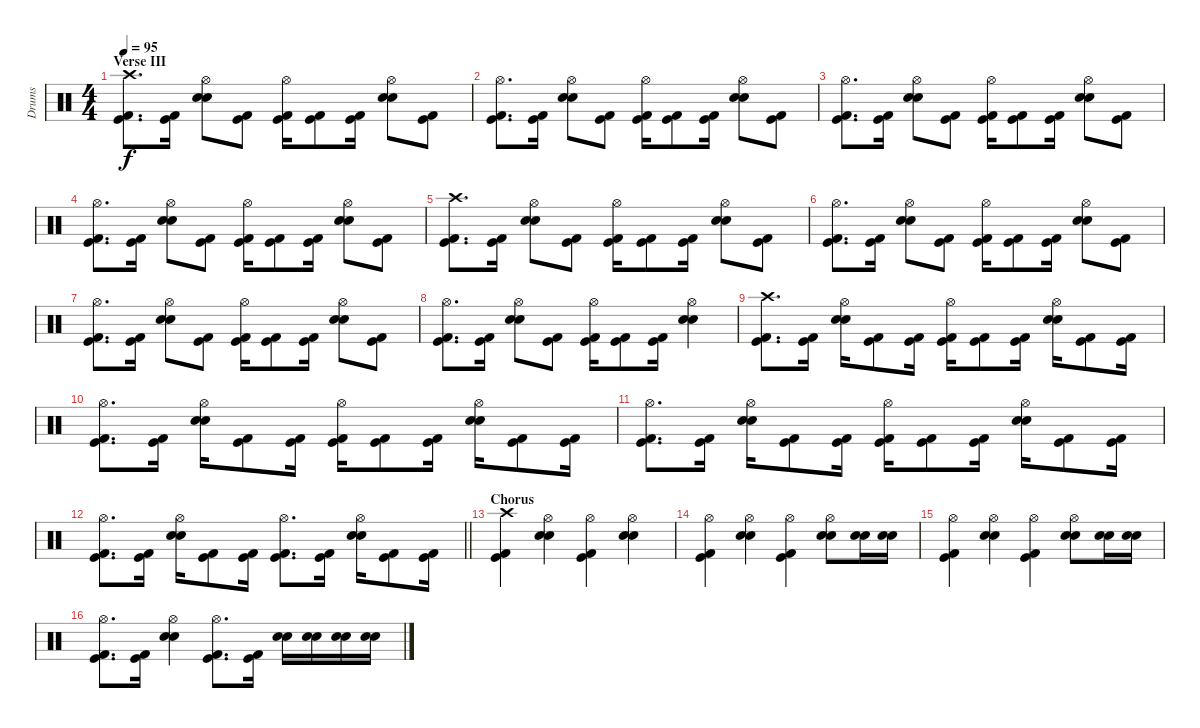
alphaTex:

\track ("Drums" "Drums") {instrument percussion}
\staff {score}
\articulation defaults
\ts (4 4)
\section ("" "Verse III")
\tempo 95
\clef neutral
\ks c
("Crash high (hit)" "Kick (hit)" "Kick (hit) 2").8{d dy f} ("Kick (hit)" "Kick (hit) 2").16 ("Hi-Hat (open)" "Snare (hit) 2" "Electric Snare (hit)").8 ("Kick (hit)" "Kick (hit) 2").8 ("Hi-Hat (open)" "Kick (hit)" "Kick (hit) 2").16 ("Kick (hit)" "Kick (hit) 2").8 ("Kick (hit)" "Kick (hit) 2").16 ("Hi-Hat (open)" "Snare (hit) 2" "Electric Snare (hit)").8 ("Kick (hit)" "Kick (hit) 2").8 |
("Hi-Hat (open)" "Kick (hit)" "Kick (hit) 2").8{d} ("Kick (hit)" "Kick (hit) 2").16 ("Hi-Hat (open)" "Snare (hit) 2" "Electric Snare (hit)").8 ("Kick (hit)" "Kick (hit) 2").8 ("Hi-Hat (open)" "Kick (hit)" "Kick (hit) 2").16 ("Kick (hit)" "Kick (hit) 2").8 ("Kick (hit)" "Kick (hit) 2").16 ("Hi-Hat (open)" "Snare (hit) 2" "Electric Snare (hit)").8 ("Kick (hit)" "Kick (hit) 2").8 |
("Hi-Hat (open)" "Kick (hit)" "Kick (hit) 2").8{d} ("Kick (hit)" "Kick (hit) 2").16 ("Hi-Hat (open)" "Snare (hit) 2" "Electric Snare (hit)").8 ("Kick (hit)" "Kick (hit) 2").8 ("Hi-Hat (open)" "Kick (hit)" "Kick (hit) 2").16 ("Kick (hit)" "Kick (hit) 2").8 ("Kick (hit)" "Kick (hit) 2").16 ("Hi-Hat (open)" "Snare (hit) 2" "Electric Snare (hit)").8 ("Kick (hit)" "Kick (hit) 2").8 |
("Hi-Hat (open)" "Kick (hit)" "Kick (hit) 2").8{d} ("Kick (hit)" "Kick (hit) 2").16 ("Hi-Hat (open)" "Snare (hit) 2" "Electric Snare (hit)").8 ("Kick (hit)" "Kick (hit) 2").8 ("Hi-Hat (open)" "Kick (hit)" "Kick (hit) 2").16 ("Kick (hit)" "Kick (hit) 2").8 ("Kick (hit)" "Kick (hit) 2").16 ("Hi-Hat (open)" "Snare (hit) 2" "Electric Snare (hit)").8 ("Kick (hit)" "Kick (hit) 2").8 |
("Crash high (hit)" "Kick (hit)" "Kick (hit) 2").8{d} ("Kick (hit)" "Kick (hit) 2").16 ("Hi-Hat (open)" "Snare (hit) 2" "Electric Snare (hit)").8 ("Kick (hit)" "Kick (hit) 2").8 ("Hi-Hat (open)" "Kick (hit)" "Kick (hit) 2").16 ("Kick (hit)" "Kick (hit) 2").8 ("Kick (hit)" "Kick (hit) 2").16 ("Hi-Hat (open)" "Snare (hit) 2" "Electric Snare (hit)").8 ("Kick (hit)" "Kick (hit) 2").8 |
("Hi-Hat (open)" "Kick (hit)" "Kick (hit) 2").8{d} ("Kick (hit)" "Kick (hit) 2").16 ("Hi-Hat (open)" "Snare (hit) 2" "Electric Snare (hit)").8 ("Kick (hit)" "Kick (hit) 2").8 ("Hi-Hat (open)" "Kick (hit)" "Kick (hit) 2").16 ("Kick (hit)" "Kick (hit) 2").8 ("Kick (hit)" "Kick (hit) 2").16 ("Hi-Hat (open)" "Snare (hit) 2" "Electric Snare (hit)").8 ("Kick (hit)" "Kick (hit) 2").8 |
("Hi-Hat (open)" "Kick (hit)" "Kick (hit) 2").8{d} ("Kick (hit)" "Kick (hit) 2").16 ("Hi-Hat (open)" "Snare (hit) 2" "Electric Snare (hit)").8 ("Kick (hit)" "Kick (hit) 2").8 ("Hi-Hat (open)" "Kick (hit)" "Kick (hit) 2").16 ("Kick (hit)" "Kick (hit) 2").8 ("Kick (hit)" "Kick (hit) 2").16 ("Hi-Hat (open)" "Snare (hit) 2" "Electric Snare (hit)").8 ("Kick (hit)" "Kick (hit) 2").8 |
("Hi-Hat (open)" "Kick (hit)" "Kick (hit) 2").8{d} ("Kick (hit)" "Kick (hit) 2").16 ("Hi-Hat (open)" "Snare (hit) 2" "Electric Snare (hit)").8 ("Kick (hit)" "Kick (hit) 2").8 ("Hi-Hat (open)" "Kick (hit)" "Kick (hit) 2").16 ("Kick (hit)" "Kick (hit) 2").8 ("Kick (hit)" "Kick (hit) 2").16 ("Hi-Hat (open)" "Snare (hit) 2" "Electric Snare (hit)").4 |
("Crash high (hit)" "Kick (hit)" "Kick (hit) 2").8{d} ("Kick (hit)" "Kick (hit) 2").16 ("Hi-Hat (open)" "Snare (hit) 2" "Electric Snare (hit)").16 ("Kick (hit)" "Kick (hit) 2").8 ("Kick (hit)" "Kick (hit) 2").16 ("Hi-Hat (open)" "Kick (hit)" "Kick (hit) 2").16 ("Kick (hit)" "Kick (hit) 2").8 ("Kick (hit)" "Kick (hit) 2").16 ("Hi-Hat (open)" "Snare (hit) 2" "Electric Snare (hit)").16 ("Kick (hit)" "Kick (hit) 2").8 ("Kick (hit)" "Kick (hit) 2").16 |
("Hi-Hat (open)" "Kick (hit)" "Kick (hit) 2").8{d} ("Kick (hit)" "Kick (hit) 2").16 ("Hi-Hat (open)" "Snare (hit) 2" "Electric Snare (hit)").16 ("Kick (hit)" "Kick (hit) 2").8 ("Kick (hit)" "Kick (hit) 2").16 ("Hi-Hat (open)" "Kick (hit)" "Kick (hit) 2").16 ("Kick (hit)" "Kick (hit) 2").8 ("Kick (hit)" "Kick (hit) 2").16 ("Hi-Hat (open)" "Snare (hit) 2" "Electric Snare (hit)").16 ("Kick (hit)" "Kick (hit) 2").8 ("Kick (hit)" "Kick (hit) 2").16 |
("Hi-Hat (open)" "Kick (hit)" "Kick (hit) 2").8{d} ("Kick (hit)" "Kick (hit) 2").16 ("Hi-Hat (open)" "Snare (hit) 2" "Electric Snare (hit)").16 ("Kick (hit)" "Kick (hit) 2").8 ("Kick (hit)" "Kick (hit) 2").16 ("Hi-Hat (open)" "Kick (hit)" "Kick (hit) 2").16 ("Kick (hit)" "Kick (hit) 2").8 ("Kick (hit)" "Kick (hit) 2").16 ("Hi-Hat (open)" "Snare (hit) 2" "Electric Snare (hit)").16 ("Kick (hit)" "Kick (hit) 2").8 ("Kick (hit)" "Kick (hit) 2").16 |
\barLineRight lightlight
("Hi-Hat (open)" "Kick (hit)" "Kick (hit) 2").8{d} ("Kick (hit)" "Kick (hit) 2").16 ("Hi-Hat (open)" "Snare (hit) 2" "Electric Snare (hit)").16 ("Kick (hit)" "Kick (hit) 2").8 ("Kick (hit)" "Kick (hit) 2").16 ("Hi-Hat (open)" "Kick (hit)" "Kick (hit) 2").8{d} ("Kick (hit)" "Kick (hit) 2").16 ("Hi-Hat (open)" "Snare (hit) 2" "Electric Snare (hit)").16 ("Kick (hit)" "Kick (hit) 2").8 ("Kick (hit)" "Kick (hit) 2").16 |
\section ("" "Chorus")
("Crash high (hit)" "Kick (hit)" "Kick (hit) 2").4 ("Hi-Hat (open)" "Snare (hit) 2" "Electric Snare (hit)").4 ("Hi-Hat (open)" "Kick (hit)" "Kick (hit) 2").4 ("Hi-Hat (open)" "Snare (hit) 2" "Electric Snare (hit)").4 |
("Hi-Hat (open)" "Kick (hit)" "Kick (hit) 2").4 ("Hi-Hat (open)" "Snare (hit) 2" "Electric Snare (hit)").4 ("Hi-Hat (open)" "Kick (hit)" "Kick (hit) 2").4 ("Hi-Hat (open)" "Snare (hit) 2" "Electric Snare (hit)").8 ("Snare (hit) 2" "Electric Snare (hit)").16 ("Snare (hit) 2" "Electric Snare (hit)").16 |
("Hi-Hat (open)" "Kick (hit)" "Kick (hit) 2").4 ("Hi-Hat (open)" "Snare (hit) 2" "Electric Snare (hit)").4 ("Hi-Hat (open)" "Kick (hit)" "Kick (hit) 2").4 ("Hi-Hat (open)" "Snare (hit) 2" "Electric Snare (hit)").8 ("Snare (hit) 2" "Electric Snare (hit)").16 ("Snare (hit) 2" "Electric Snare (hit)").16 |
("Hi-Hat (open)" "Kick (hit)" "Kick (hit) 2").8{d} ("Kick (hit)" "Kick (hit) 2").16 ("Hi-Hat (open)" "Snare (hit) 2" "Electric Snare (hit)").4 ("Hi-Hat (open)" "Kick (hit)" "Kick (hit) 2").8{d} ("Kick (hit)" "Kick (hit) 2").16 ("Snare (hit) 2" "Electric Snare (hit)").16 ("Snare (hit) 2" "Electric Snare (hit)").16 ("Snare (hit) 2" "Electric Snare (hit)").16 ("Snare (hit) 2" "Electric Snare (hit)").16
